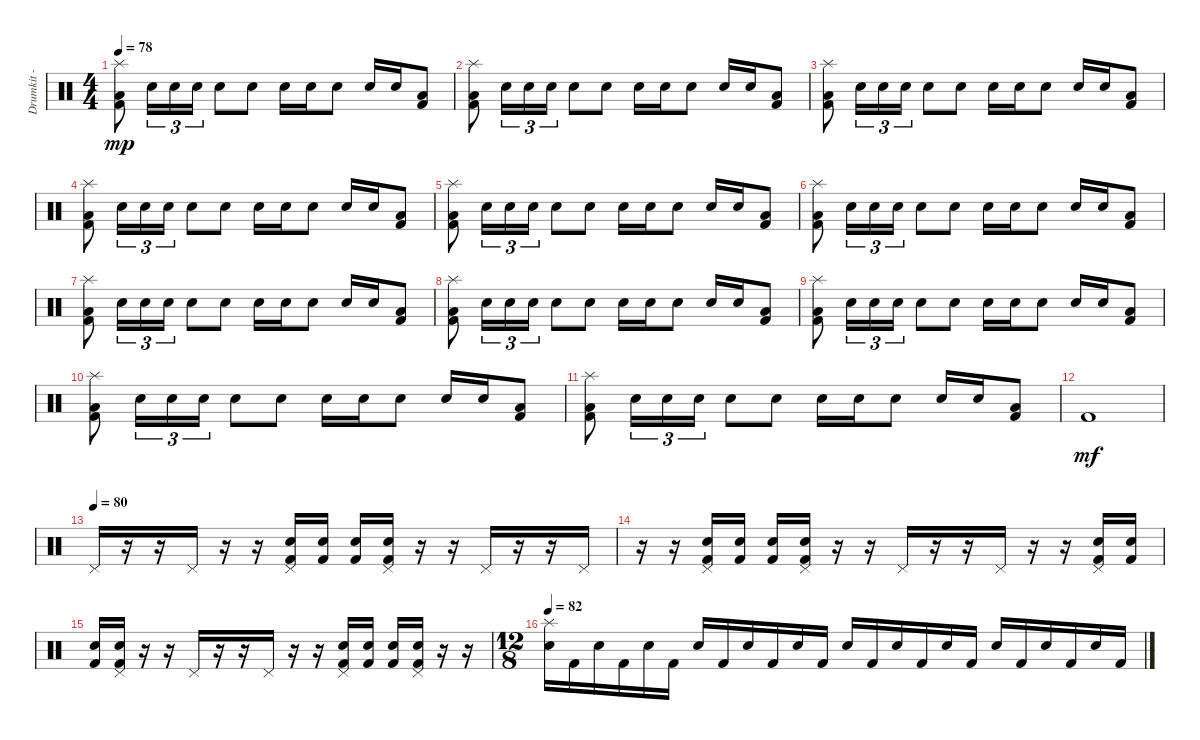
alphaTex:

\track ("Drumkit - Dom" "Drumkit - ") {instrument percussion}
\staff {score}
\articulation defaults
\ts (4 4)
\tempo 78
\clef neutral
\ks c
("Splash (hit)" "Kick (hit) 2" "Low Floor Tom (hit)").8{dy mp} "Snare (hit) 2".16{tu (3 2)} "Snare (hit) 2".16{tu (3 2)} "Snare (hit) 2".16{tu (3 2)} "Snare (hit) 2".8 "Snare (hit) 2".8 "Snare (hit) 2".16 "Snare (hit) 2".16 "Snare (hit) 2".8 "Snare (hit) 2".16 "Snare (hit) 2".16 ("Kick (hit) 2" "Low Tom (hit)").8 |
("Splash (hit)" "Kick (hit) 2" "Low Floor Tom (hit)").8 "Snare (hit) 2".16{tu (3 2)} "Snare (hit) 2".16{tu (3 2)} "Snare (hit) 2".16{tu (3 2)} "Snare (hit) 2".8 "Snare (hit) 2".8 "Snare (hit) 2".16 "Snare (hit) 2".16 "Snare (hit) 2".8 "Snare (hit) 2".16 "Snare (hit) 2".16 ("Kick (hit) 2" "Low Tom (hit)").8 |
("Splash (hit)" "Kick (hit) 2" "Low Floor Tom (hit)").8 "Snare (hit) 2".16{tu (3 2)} "Snare (hit) 2".16{tu (3 2)} "Snare (hit) 2".16{tu (3 2)} "Snare (hit) 2".8 "Snare (hit) 2".8 "Snare (hit) 2".16 "Snare (hit) 2".16 "Snare (hit) 2".8 "Snare (hit) 2".16 "Snare (hit) 2".16 ("Kick (hit) 2" "Low Tom (hit)").8 |
("Splash (hit)" "Kick (hit) 2" "Low Floor Tom (hit)").8 "Snare (hit) 2".16{tu (3 2)} "Snare (hit) 2".16{tu (3 2)} "Snare (hit) 2".16{tu (3 2)} "Snare (hit) 2".8 "Snare (hit) 2".8 "Snare (hit) 2".16 "Snare (hit) 2".16 "Snare (hit) 2".8 "Snare (hit) 2".16 "Snare (hit) 2".16 ("Kick (hit) 2" "Low Tom (hit)").8 |
("Splash (hit)" "Kick (hit) 2" "Low Floor Tom (hit)").8 "Snare (hit) 2".16{tu (3 2)} "Snare (hit) 2".16{tu (3 2)} "Snare (hit) 2".16{tu (3 2)} "Snare (hit) 2".8 "Snare (hit) 2".8 "Snare (hit) 2".16 "Snare (hit) 2".16 "Snare (hit) 2".8 "Snare (hit) 2".16 "Snare (hit) 2".16 ("Kick (hit) 2" "Low Tom (hit)").8 |
("Splash (hit)" "Kick (hit) 2" "Low Floor Tom (hit)").8 "Snare (hit) 2".16{tu (3 2)} "Snare (hit) 2".16{tu (3 2)} "Snare (hit) 2".16{tu (3 2)} "Snare (hit) 2".8 "Snare (hit) 2".8 "Snare (hit) 2".16 "Snare (hit) 2".16 "Snare (hit) 2".8 "Snare (hit) 2".16 "Snare (hit) 2".16 ("Kick (hit) 2" "Low Tom (hit)").8 |
("Splash (hit)" "Kick (hit) 2" "Low Floor Tom (hit)").8 "Snare (hit) 2".16{tu (3 2)} "Snare (hit) 2".16{tu (3 2)} "Snare (hit) 2".16{tu (3 2)} "Snare (hit) 2".8 "Snare (hit) 2".8 "Snare (hit) 2".16 "Snare (hit) 2".16 "Snare (hit) 2".8 "Snare (hit) 2".16 "Snare (hit) 2".16 ("Kick (hit) 2" "Low Tom (hit)").8 |
("Splash (hit)" "Kick (hit) 2" "Low Floor Tom (hit)").8 "Snare (hit) 2".16{tu (3 2)} "Snare (hit) 2".16{tu (3 2)} "Snare (hit) 2".16{tu (3 2)} "Snare (hit) 2".8 "Snare (hit) 2".8 "Snare (hit) 2".16 "Snare (hit) 2".16 "Snare (hit) 2".8 "Snare (hit) 2".16 "Snare (hit) 2".16 ("Kick (hit) 2" "Low Tom (hit)").8 |
("Splash (hit)" "Kick (hit) 2" "Low Floor Tom (hit)").8 "Snare (hit) 2".16{tu (3 2)} "Snare (hit) 2".16{tu (3 2)} "Snare (hit) 2".16{tu (3 2)} "Snare (hit) 2".8 "Snare (hit) 2".8 "Snare (hit) 2".16 "Snare (hit) 2".16 "Snare (hit) 2".8 "Snare (hit) 2".16 "Snare (hit) 2".16 ("Kick (hit) 2" "Low Tom (hit)").8 |
("Splash (hit)" "Kick (hit) 2" "Low Floor Tom (hit)").8 "Snare (hit) 2".16{tu (3 2)} "Snare (hit) 2".16{tu (3 2)} "Snare (hit) 2".16{tu (3 2)} "Snare (hit) 2".8 "Snare (hit) 2".8 "Snare (hit) 2".16 "Snare (hit) 2".16 "Snare (hit) 2".8 "Snare (hit) 2".16 "Snare (hit) 2".16 ("Kick (hit) 2" "Low Tom (hit)").8 |
("Splash (hit)" "Kick (hit) 2" "Low Floor Tom (hit)").8 "Snare (hit) 2".16{tu (3 2)} "Snare (hit) 2".16{tu (3 2)} "Snare (hit) 2".16{tu (3 2)} "Snare (hit) 2".8 "Snare (hit) 2".8 "Snare (hit) 2".16 "Snare (hit) 2".16 "Snare (hit) 2".8 "Snare (hit) 2".16 "Snare (hit) 2".16 ("Kick (hit) 2" "Low Tom (hit)").8 |
"Kick (hit) 2".1{dy mf} |
\tempo (80)
"Pedal Hi-Hat (hit)".16 r.16 r.16 "Pedal Hi-Hat (hit)".16 r.16 r.16 ("Kick (hit) 2" "Snare (hit) 2" "Pedal Hi-Hat (hit)").16 ("Kick (hit) 2" "Snare (hit) 2").16 ("Kick (hit) 2" "Snare (hit) 2").16 ("Kick (hit) 2" "Snare (hit) 2" "Pedal Hi-Hat (hit)").16 r.16 r.16 "Pedal Hi-Hat (hit)".16 r.16 r.16 "Pedal Hi-Hat (hit)".16 |
r.16 r.16 ("Kick (hit) 2" "Snare (hit) 2" "Pedal Hi-Hat (hit)").16 ("Kick (hit) 2" "Snare (hit) 2").16 ("Kick (hit) 2" "Snare (hit) 2").16 ("Kick (hit) 2" "Snare (hit) 2" "Pedal Hi-Hat (hit)").16 r.16 r.16 "Pedal Hi-Hat (hit)".16 r.16 r.16 "Pedal Hi-Hat (hit)".16 r.16 r.16 ("Kick (hit) 2" "Snare (hit) 2" "Pedal Hi-Hat (hit)").16 ("Kick (hit) 2" "Snare (hit) 2").16 |
("Kick (hit) 2" "Snare (hit) 2").16 ("Kick (hit) 2" "Snare (hit) 2" "Pedal Hi-Hat (hit)").16 r.16 r.16 "Pedal Hi-Hat (hit)".16 r.16 r.16 "Pedal Hi-Hat (hit)".16 r.16 r.16 ("Kick (hit) 2" "Snare (hit) 2" "Pedal Hi-Hat (hit)").16 ("Kick (hit) 2" "Snare (hit) 2").16 ("Kick (hit) 2" "Snare (hit) 2").16 ("Kick (hit) 2" "Snare (hit) 2" "Pedal Hi-Hat (hit)").16 r.16 r.16 |
\ts (12 8)
\tempo 82
("Snare (hit) 2" "Splash (hit)").16 "Kick (hit) 2".16 "Snare (hit) 2".16 "Kick (hit) 2".16 "Snare (hit) 2".16 "Kick (hit) 2".16 "Snare (hit) 2".16 "Kick (hit) 2".16 "Snare (hit) 2".16 "Kick (hit) 2".16 "Snare (hit) 2".16 "Kick (hit) 2".16 "Snare (hit) 2".16 "Kick (hit) 2".16 "Snare (hit) 2".16 "Kick (hit) 2".16 "Snare (hit) 2".16 "Kick (hit) 2".16 "Snare (hit) 2".16 "Kick (hit) 2".16 "Snare (hit) 2".16 "Kick (hit) 2".16 "Snare (hit) 2".16 "Kick (hit) 2".16
